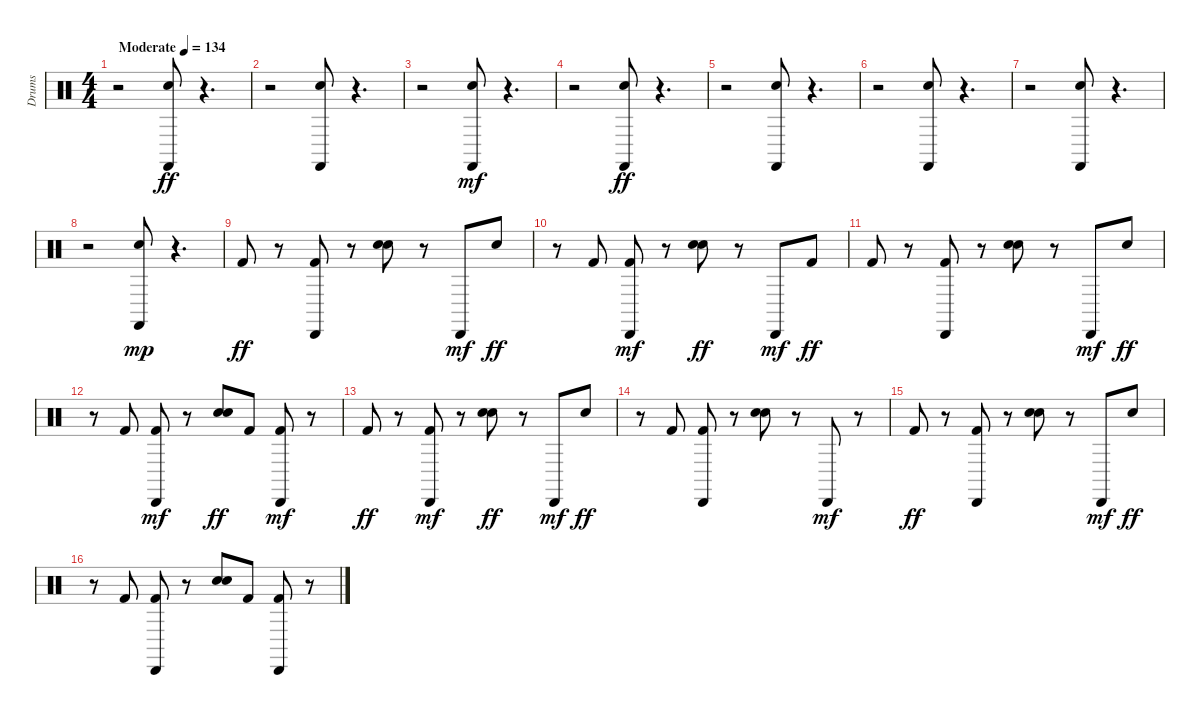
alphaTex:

\track ("Drums" "Drums") {instrument percussion}
\staff {score}
\articulation defaults
\ts (4 4)
\tempo (134 "Moderate")
\clef neutral
\ks c
r.2{dy ff} ("Castanets (hit)" "Snare (hit)").8 r.4{d} |
r.2 ("Castanets (hit)" "Snare (hit)").8 r.4{d} |
r.2 ("Snare (hit)" "Castanets (hit)").8{dy mf} r.4{d} |
r.2 ("Castanets (hit)" "Snare (hit)").8{dy ff} r.4{d} |
r.2 ("Castanets (hit)" "Snare (hit)").8 r.4{d} |
r.2 ("Castanets (hit)" "Snare (hit)").8 r.4{d} |
r.2 ("Castanets (hit)" "Snare (hit)").8 r.4{d} |
r.2 ("Snare (hit)" "Castanets (hit)").8{dy mp} r.4{d} |
"Kick (hit) 2".8{dy ff} r.8 ("Cabasa (hit)" "Kick (hit) 2").8 r.8 ("Hand Clap (hit)" "Snare (hit) 2").8 r.8 "Cabasa (hit)".8{dy mf} "Snare (hit) 2".8{dy ff} |
r.8 "Kick (hit) 2".8 ("Kick (hit) 2" "Cabasa (hit)").8{dy mf} r.8 ("Hand Clap (hit)" "Snare (hit) 2").8{dy ff} r.8 "Cabasa (hit)".8{dy mf} "Kick (hit) 2".8{dy ff} |
"Kick (hit) 2".8 r.8 ("Cabasa (hit)" "Kick (hit) 2").8 r.8 ("Snare (hit) 2" "Hand Clap (hit)").8 r.8 "Cabasa (hit)".8{dy mf} "Snare (hit) 2".8{dy ff} |
r.8 "Kick (hit) 2".8 ("Kick (hit) 2" "Cabasa (hit)").8{dy mf} r.8 ("Hand Clap (hit)" "Snare (hit) 2").8{dy ff} "Kick (hit) 2".8 ("Kick (hit) 2" "Cabasa (hit)").8{dy mf} r.8 |
"Kick (hit) 2".8{dy ff} r.8 ("Kick (hit) 2" "Cabasa (hit)").8{dy mf} r.8 ("Hand Clap (hit)" "Snare (hit) 2").8{dy ff} r.8 "Cabasa (hit)".8{dy mf} "Snare (hit) 2".8{dy ff} |
r.8 "Kick (hit) 2".8 ("Cabasa (hit)" "Kick (hit) 2").8 r.8 ("Hand Clap (hit)" "Snare (hit) 2").8 r.8 "Cabasa (hit)".8{dy mf} r.8 |
"Kick (hit) 2".8{dy ff} r.8 ("Cabasa (hit)" "Kick (hit) 2").8 r.8 ("Snare (hit) 2" "Hand Clap (hit)").8 r.8 "Cabasa (hit)".8{dy mf} "Snare (hit) 2".8{dy ff} |
r.8 "Kick (hit) 2".8 ("Cabasa (hit)" "Kick (hit) 2").8 r.8 ("Hand Clap (hit)" "Snare (hit) 2").8 "Kick (hit) 2".8 ("Cabasa (hit)" "Kick (hit) 2").8 r.8
